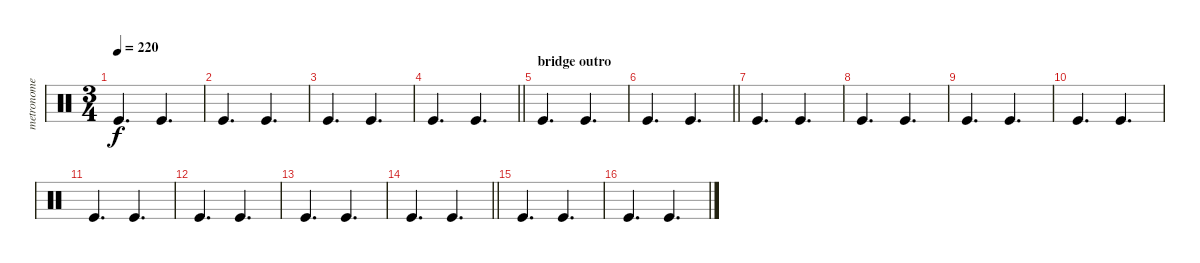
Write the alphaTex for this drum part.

\track ("metronome" "metronome") {instrument percussion}
\staff {score}
\articulation defaults
\ts (3 4)
\tempo 220
\clef neutral
\ks c "Kick (hit)".4{d dy f} "Kick (hit)".4{d}
|
"Kick (hit)".4{d} "Kick (hit)".4{d} |
"Kick (hit)".4{d} "Kick (hit)".4{d} |
\barLineRight lightlight "Kick (hit)".4{d} "Kick (hit)".4{d}
|
\section ("" "bridge outro")
"Kick (hit)".4{d} "Kick (hit)".4{d} |
\barLineRight lightlight "Kick (hit)".4{d} "Kick (hit)".4{d}
|
"Kick (hit)".4{d} "Kick (hit)".4{d} |
"Kick (hit)".4{d} "Kick (hit)".4{d} |
"Kick (hit)".4{d} "Kick (hit)".4{d} |
"Kick (hit)".4{d} "Kick (hit)".4{d} |
"Kick (hit)".4{d} "Kick (hit)".4{d} |
"Kick (hit)".4{d} "Kick (hit)".4{d} |
"Kick (hit)".4{d} "Kick (hit)".4{d} |
\barLineRight lightlight "Kick (hit)".4{d} "Kick (hit)".4{d}
|
"Kick (hit)".4{d} "Kick (hit)".4{d} |
"Kick (hit)".4{d} "Kick (hit)".4{d}
